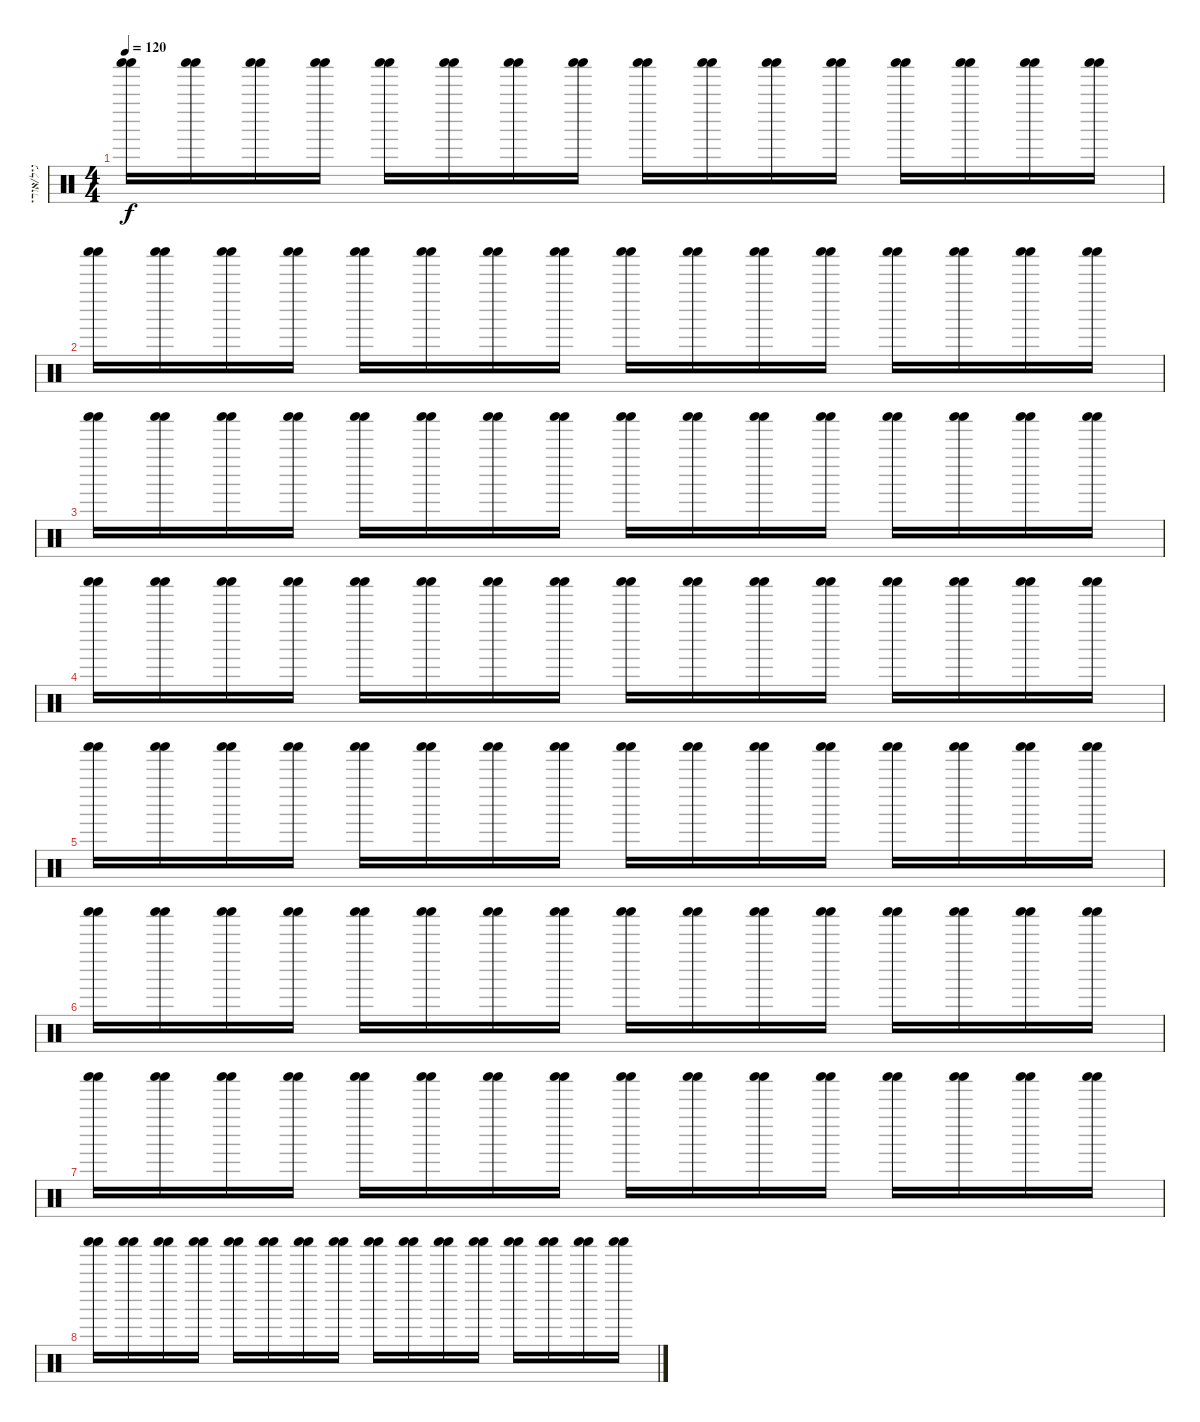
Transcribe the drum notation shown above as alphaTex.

\track ("גיל/אורי" "גיל/אורי") {instrument percussion}
\staff {score}
\articulation defaults
\ts (4 4)
\tempo 120
\clef neutral
\ks c
("Shaker (hit)" "Shaker (hit)").16{dy f} ("Shaker (hit)" "Shaker (hit)").16 ("Shaker (hit)" "Shaker (hit)").16 ("Shaker (hit)" "Shaker (hit)").16 ("Shaker (hit)" "Shaker (hit)").16 ("Shaker (hit)" "Shaker (hit)").16 ("Shaker (hit)" "Shaker (hit)").16 ("Shaker (hit)" "Shaker (hit)").16 ("Shaker (hit)" "Shaker (hit)").16 ("Shaker (hit)" "Shaker (hit)").16 ("Shaker (hit)" "Shaker (hit)").16 ("Shaker (hit)" "Shaker (hit)").16 ("Shaker (hit)" "Shaker (hit)").16 ("Shaker (hit)" "Shaker (hit)").16 ("Shaker (hit)" "Shaker (hit)").16 ("Shaker (hit)" "Shaker (hit)").16 |
("Shaker (hit)" "Shaker (hit)").16 ("Shaker (hit)" "Shaker (hit)").16 ("Shaker (hit)" "Shaker (hit)").16 ("Shaker (hit)" "Shaker (hit)").16 ("Shaker (hit)" "Shaker (hit)").16 ("Shaker (hit)" "Shaker (hit)").16 ("Shaker (hit)" "Shaker (hit)").16 ("Shaker (hit)" "Shaker (hit)").16 ("Shaker (hit)" "Shaker (hit)").16 ("Shaker (hit)" "Shaker (hit)").16 ("Shaker (hit)" "Shaker (hit)").16 ("Shaker (hit)" "Shaker (hit)").16 ("Shaker (hit)" "Shaker (hit)").16 ("Shaker (hit)" "Shaker (hit)").16 ("Shaker (hit)" "Shaker (hit)").16 ("Shaker (hit)" "Shaker (hit)").16 |
("Shaker (hit)" "Shaker (hit)").16 ("Shaker (hit)" "Shaker (hit)").16 ("Shaker (hit)" "Shaker (hit)").16 ("Shaker (hit)" "Shaker (hit)").16 ("Shaker (hit)" "Shaker (hit)").16 ("Shaker (hit)" "Shaker (hit)").16 ("Shaker (hit)" "Shaker (hit)").16 ("Shaker (hit)" "Shaker (hit)").16 ("Shaker (hit)" "Shaker (hit)").16 ("Shaker (hit)" "Shaker (hit)").16 ("Shaker (hit)" "Shaker (hit)").16 ("Shaker (hit)" "Shaker (hit)").16 ("Shaker (hit)" "Shaker (hit)").16 ("Shaker (hit)" "Shaker (hit)").16 ("Shaker (hit)" "Shaker (hit)").16 ("Shaker (hit)" "Shaker (hit)").16 |
("Shaker (hit)" "Shaker (hit)").16 ("Shaker (hit)" "Shaker (hit)").16 ("Shaker (hit)" "Shaker (hit)").16 ("Shaker (hit)" "Shaker (hit)").16 ("Shaker (hit)" "Shaker (hit)").16 ("Shaker (hit)" "Shaker (hit)").16 ("Shaker (hit)" "Shaker (hit)").16 ("Shaker (hit)" "Shaker (hit)").16 ("Shaker (hit)" "Shaker (hit)").16 ("Shaker (hit)" "Shaker (hit)").16 ("Shaker (hit)" "Shaker (hit)").16 ("Shaker (hit)" "Shaker (hit)").16 ("Shaker (hit)" "Shaker (hit)").16 ("Shaker (hit)" "Shaker (hit)").16 ("Shaker (hit)" "Shaker (hit)").16 ("Shaker (hit)" "Shaker (hit)").16 |
("Shaker (hit)" "Shaker (hit)").16 ("Shaker (hit)" "Shaker (hit)").16 ("Shaker (hit)" "Shaker (hit)").16 ("Shaker (hit)" "Shaker (hit)").16 ("Shaker (hit)" "Shaker (hit)").16 ("Shaker (hit)" "Shaker (hit)").16 ("Shaker (hit)" "Shaker (hit)").16 ("Shaker (hit)" "Shaker (hit)").16 ("Shaker (hit)" "Shaker (hit)").16 ("Shaker (hit)" "Shaker (hit)").16 ("Shaker (hit)" "Shaker (hit)").16 ("Shaker (hit)" "Shaker (hit)").16 ("Shaker (hit)" "Shaker (hit)").16 ("Shaker (hit)" "Shaker (hit)").16 ("Shaker (hit)" "Shaker (hit)").16 ("Shaker (hit)" "Shaker (hit)").16 |
("Shaker (hit)" "Shaker (hit)").16 ("Shaker (hit)" "Shaker (hit)").16 ("Shaker (hit)" "Shaker (hit)").16 ("Shaker (hit)" "Shaker (hit)").16 ("Shaker (hit)" "Shaker (hit)").16 ("Shaker (hit)" "Shaker (hit)").16 ("Shaker (hit)" "Shaker (hit)").16 ("Shaker (hit)" "Shaker (hit)").16 ("Shaker (hit)" "Shaker (hit)").16 ("Shaker (hit)" "Shaker (hit)").16 ("Shaker (hit)" "Shaker (hit)").16 ("Shaker (hit)" "Shaker (hit)").16 ("Shaker (hit)" "Shaker (hit)").16 ("Shaker (hit)" "Shaker (hit)").16 ("Shaker (hit)" "Shaker (hit)").16 ("Shaker (hit)" "Shaker (hit)").16 |
("Shaker (hit)" "Shaker (hit)").16 ("Shaker (hit)" "Shaker (hit)").16 ("Shaker (hit)" "Shaker (hit)").16 ("Shaker (hit)" "Shaker (hit)").16 ("Shaker (hit)" "Shaker (hit)").16 ("Shaker (hit)" "Shaker (hit)").16 ("Shaker (hit)" "Shaker (hit)").16 ("Shaker (hit)" "Shaker (hit)").16 ("Shaker (hit)" "Shaker (hit)").16 ("Shaker (hit)" "Shaker (hit)").16 ("Shaker (hit)" "Shaker (hit)").16 ("Shaker (hit)" "Shaker (hit)").16 ("Shaker (hit)" "Shaker (hit)").16 ("Shaker (hit)" "Shaker (hit)").16 ("Shaker (hit)" "Shaker (hit)").16 ("Shaker (hit)" "Shaker (hit)").16 |
("Shaker (hit)" "Shaker (hit)").16 ("Shaker (hit)" "Shaker (hit)").16 ("Shaker (hit)" "Shaker (hit)").16 ("Shaker (hit)" "Shaker (hit)").16 ("Shaker (hit)" "Shaker (hit)").16 ("Shaker (hit)" "Shaker (hit)").16 ("Shaker (hit)" "Shaker (hit)").16 ("Shaker (hit)" "Shaker (hit)").16 ("Shaker (hit)" "Shaker (hit)").16 ("Shaker (hit)" "Shaker (hit)").16 ("Shaker (hit)" "Shaker (hit)").16 ("Shaker (hit)" "Shaker (hit)").16 ("Shaker (hit)" "Shaker (hit)").16 ("Shaker (hit)" "Shaker (hit)").16 ("Shaker (hit)" "Shaker (hit)").16 ("Shaker (hit)" "Shaker (hit)").16
